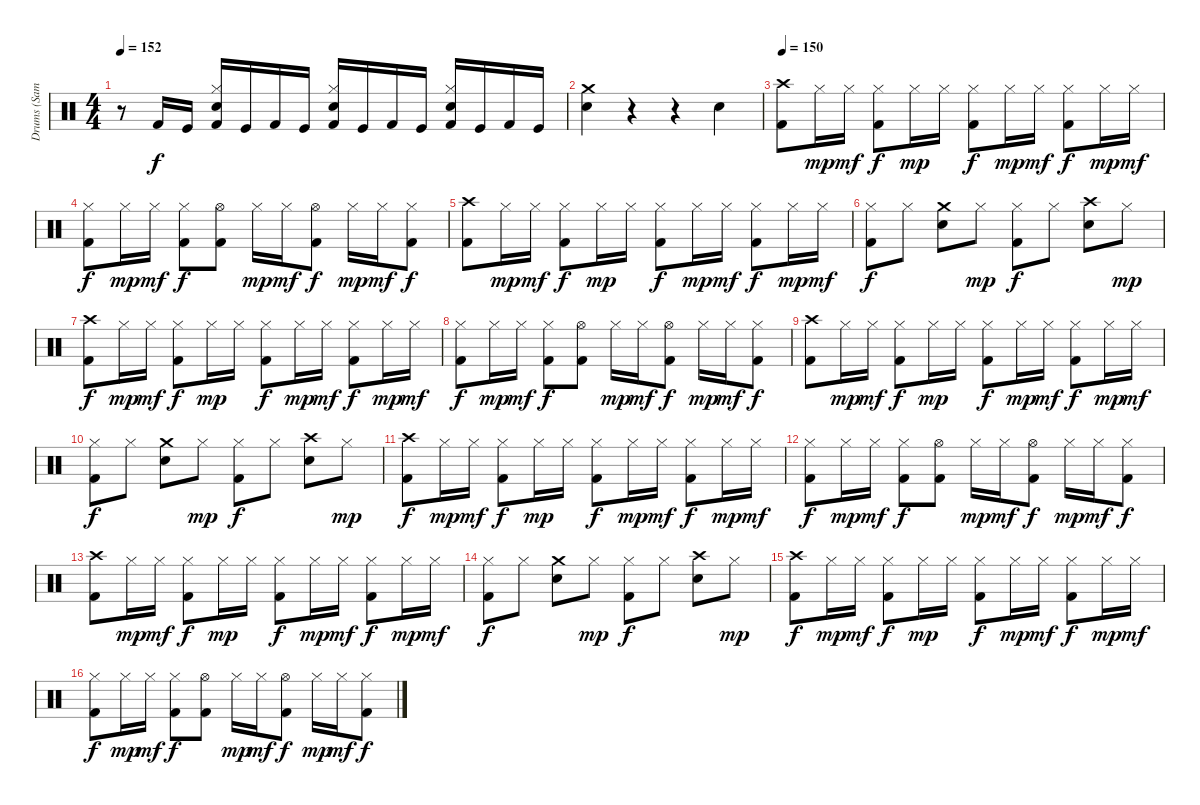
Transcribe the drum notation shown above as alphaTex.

\track ("Drums (Samuelson)" "Drums (Sam") {instrument percussion}
\staff
\articulation defaults
\ts (4 4)
\tempo 152
\clef neutral
\ks c
r.8{dy f} "Kick (hit) 2".16 "Kick (hit)".16 ("Hi-Hat (closed)" "Electric Snare (hit)" "Kick (hit) 2").16 "Kick (hit)".16 "Kick (hit) 2".16 "Kick (hit)".16 ("Hi-Hat (closed)" "Electric Snare (hit)" "Kick (hit) 2").16 "Kick (hit)".16 "Kick (hit) 2".16 "Kick (hit)".16 ("Hi-Hat (closed)" "Electric Snare (hit)" "Kick (hit) 2").16 "Kick (hit)".16 "Kick (hit) 2".16 "Kick (hit)".16 |
("Crash medium (hit)" "Electric Snare (hit)").4 r.4 r.4 "Electric Snare (hit)".4 |
\tempo 150
("Crash high (hit)" "Kick (hit) 2").8 "Hi-Hat (closed)".16{dy mp} "Hi-Hat (closed)".16{dy mf} ("Hi-Hat (closed)" "Kick (hit) 2").8{dy f} "Hi-Hat (closed)".16{dy mp} "Hi-Hat (closed)".16 ("Hi-Hat (closed)" "Kick (hit) 2").8{dy f} "Hi-Hat (closed)".16{dy mp} "Hi-Hat (closed)".16{dy mf} ("Hi-Hat (closed)" "Kick (hit) 2").8{dy f} "Hi-Hat (closed)".16{dy mp} "Hi-Hat (closed)".16{dy mf} |
("Hi-Hat (closed)" "Kick (hit) 2").8{dy f} "Hi-Hat (closed)".16{dy mp} "Hi-Hat (closed)".16{dy mf} ("Hi-Hat (closed)" "Kick (hit) 2").8{dy f} ("Hi-Hat (open)" "Kick (hit) 2").8 "Hi-Hat (closed)".16{dy mp} "Hi-Hat (closed)".16{dy mf} ("Hi-Hat (open)" "Kick (hit) 2").8{dy f} "Hi-Hat (closed)".16{dy mp} "Hi-Hat (closed)".16{dy mf} ("Hi-Hat (closed)" "Kick (hit) 2").8{dy f} |
("Crash high (hit)" "Kick (hit) 2").8 "Hi-Hat (closed)".16{dy mp} "Hi-Hat (closed)".16{dy mf} ("Hi-Hat (closed)" "Kick (hit) 2").8{dy f} "Hi-Hat (closed)".16{dy mp} "Hi-Hat (closed)".16 ("Hi-Hat (closed)" "Kick (hit) 2").8{dy f} "Hi-Hat (closed)".16{dy mp} "Hi-Hat (closed)".16{dy mf} ("Hi-Hat (closed)" "Kick (hit) 2").8{dy f} "Hi-Hat (closed)".16{dy mp} "Hi-Hat (closed)".16{dy mf} |
("Hi-Hat (closed)" "Kick (hit) 2").8{dy f} "Hi-Hat (closed)".8 ("Crash medium (hit)" "Electric Snare (hit)").8 "Hi-Hat (closed)".8{dy mp} ("Hi-Hat (closed)" "Kick (hit) 2").8{dy f} "Hi-Hat (closed)".8 ("Crash high (hit)" "Electric Snare (hit)").8 "Hi-Hat (closed)".8{dy mp} |
("Crash high (hit)" "Kick (hit) 2").8{dy f} "Hi-Hat (closed)".16{dy mp} "Hi-Hat (closed)".16{dy mf} ("Hi-Hat (closed)" "Kick (hit) 2").8{dy f} "Hi-Hat (closed)".16{dy mp} "Hi-Hat (closed)".16 ("Hi-Hat (closed)" "Kick (hit) 2").8{dy f} "Hi-Hat (closed)".16{dy mp} "Hi-Hat (closed)".16{dy mf} ("Hi-Hat (closed)" "Kick (hit) 2").8{dy f} "Hi-Hat (closed)".16{dy mp} "Hi-Hat (closed)".16{dy mf} |
("Hi-Hat (closed)" "Kick (hit) 2").8{dy f} "Hi-Hat (closed)".16{dy mp} "Hi-Hat (closed)".16{dy mf} ("Hi-Hat (closed)" "Kick (hit) 2").8{dy f} ("Hi-Hat (open)" "Kick (hit) 2").8 "Hi-Hat (closed)".16{dy mp} "Hi-Hat (closed)".16{dy mf} ("Hi-Hat (open)" "Kick (hit) 2").8{dy f} "Hi-Hat (closed)".16{dy mp} "Hi-Hat (closed)".16{dy mf} ("Hi-Hat (closed)" "Kick (hit) 2").8{dy f} |
("Crash high (hit)" "Kick (hit) 2").8 "Hi-Hat (closed)".16{dy mp} "Hi-Hat (closed)".16{dy mf} ("Hi-Hat (closed)" "Kick (hit) 2").8{dy f} "Hi-Hat (closed)".16{dy mp} "Hi-Hat (closed)".16 ("Hi-Hat (closed)" "Kick (hit) 2").8{dy f} "Hi-Hat (closed)".16{dy mp} "Hi-Hat (closed)".16{dy mf} ("Hi-Hat (closed)" "Kick (hit) 2").8{dy f} "Hi-Hat (closed)".16{dy mp} "Hi-Hat (closed)".16{dy mf} |
("Hi-Hat (closed)" "Kick (hit) 2").8{dy f} "Hi-Hat (closed)".8 ("Crash medium (hit)" "Electric Snare (hit)").8 "Hi-Hat (closed)".8{dy mp} ("Hi-Hat (closed)" "Kick (hit) 2").8{dy f} "Hi-Hat (closed)".8 ("Crash high (hit)" "Electric Snare (hit)").8 "Hi-Hat (closed)".8{dy mp} |
("Crash high (hit)" "Kick (hit) 2").8{dy f} "Hi-Hat (closed)".16{dy mp} "Hi-Hat (closed)".16{dy mf} ("Hi-Hat (closed)" "Kick (hit) 2").8{dy f} "Hi-Hat (closed)".16{dy mp} "Hi-Hat (closed)".16 ("Hi-Hat (closed)" "Kick (hit) 2").8{dy f} "Hi-Hat (closed)".16{dy mp} "Hi-Hat (closed)".16{dy mf} ("Hi-Hat (closed)" "Kick (hit) 2").8{dy f} "Hi-Hat (closed)".16{dy mp} "Hi-Hat (closed)".16{dy mf} |
("Hi-Hat (closed)" "Kick (hit) 2").8{dy f} "Hi-Hat (closed)".16{dy mp} "Hi-Hat (closed)".16{dy mf} ("Hi-Hat (closed)" "Kick (hit) 2").8{dy f} ("Hi-Hat (open)" "Kick (hit) 2").8 "Hi-Hat (closed)".16{dy mp} "Hi-Hat (closed)".16{dy mf} ("Hi-Hat (open)" "Kick (hit) 2").8{dy f} "Hi-Hat (closed)".16{dy mp} "Hi-Hat (closed)".16{dy mf} ("Hi-Hat (closed)" "Kick (hit) 2").8{dy f} |
("Crash high (hit)" "Kick (hit) 2").8 "Hi-Hat (closed)".16{dy mp} "Hi-Hat (closed)".16{dy mf} ("Hi-Hat (closed)" "Kick (hit) 2").8{dy f} "Hi-Hat (closed)".16{dy mp} "Hi-Hat (closed)".16 ("Hi-Hat (closed)" "Kick (hit) 2").8{dy f} "Hi-Hat (closed)".16{dy mp} "Hi-Hat (closed)".16{dy mf} ("Hi-Hat (closed)" "Kick (hit) 2").8{dy f} "Hi-Hat (closed)".16{dy mp} "Hi-Hat (closed)".16{dy mf} |
("Hi-Hat (closed)" "Kick (hit) 2").8{dy f} "Hi-Hat (closed)".8 ("Crash medium (hit)" "Electric Snare (hit)").8 "Hi-Hat (closed)".8{dy mp} ("Hi-Hat (closed)" "Kick (hit) 2").8{dy f} "Hi-Hat (closed)".8 ("Crash high (hit)" "Electric Snare (hit)").8 "Hi-Hat (closed)".8{dy mp} |
("Crash high (hit)" "Kick (hit) 2").8{dy f} "Hi-Hat (closed)".16{dy mp} "Hi-Hat (closed)".16{dy mf} ("Hi-Hat (closed)" "Kick (hit) 2").8{dy f} "Hi-Hat (closed)".16{dy mp} "Hi-Hat (closed)".16 ("Hi-Hat (closed)" "Kick (hit) 2").8{dy f} "Hi-Hat (closed)".16{dy mp} "Hi-Hat (closed)".16{dy mf} ("Hi-Hat (closed)" "Kick (hit) 2").8{dy f} "Hi-Hat (closed)".16{dy mp} "Hi-Hat (closed)".16{dy mf} |
("Hi-Hat (closed)" "Kick (hit) 2").8{dy f} "Hi-Hat (closed)".16{dy mp} "Hi-Hat (closed)".16{dy mf} ("Hi-Hat (closed)" "Kick (hit) 2").8{dy f} ("Hi-Hat (open)" "Kick (hit) 2").8 "Hi-Hat (closed)".16{dy mp} "Hi-Hat (closed)".16{dy mf} ("Hi-Hat (open)" "Kick (hit) 2").8{dy f} "Hi-Hat (closed)".16{dy mp} "Hi-Hat (closed)".16{dy mf} ("Hi-Hat (closed)" "Kick (hit) 2").8{dy f}
